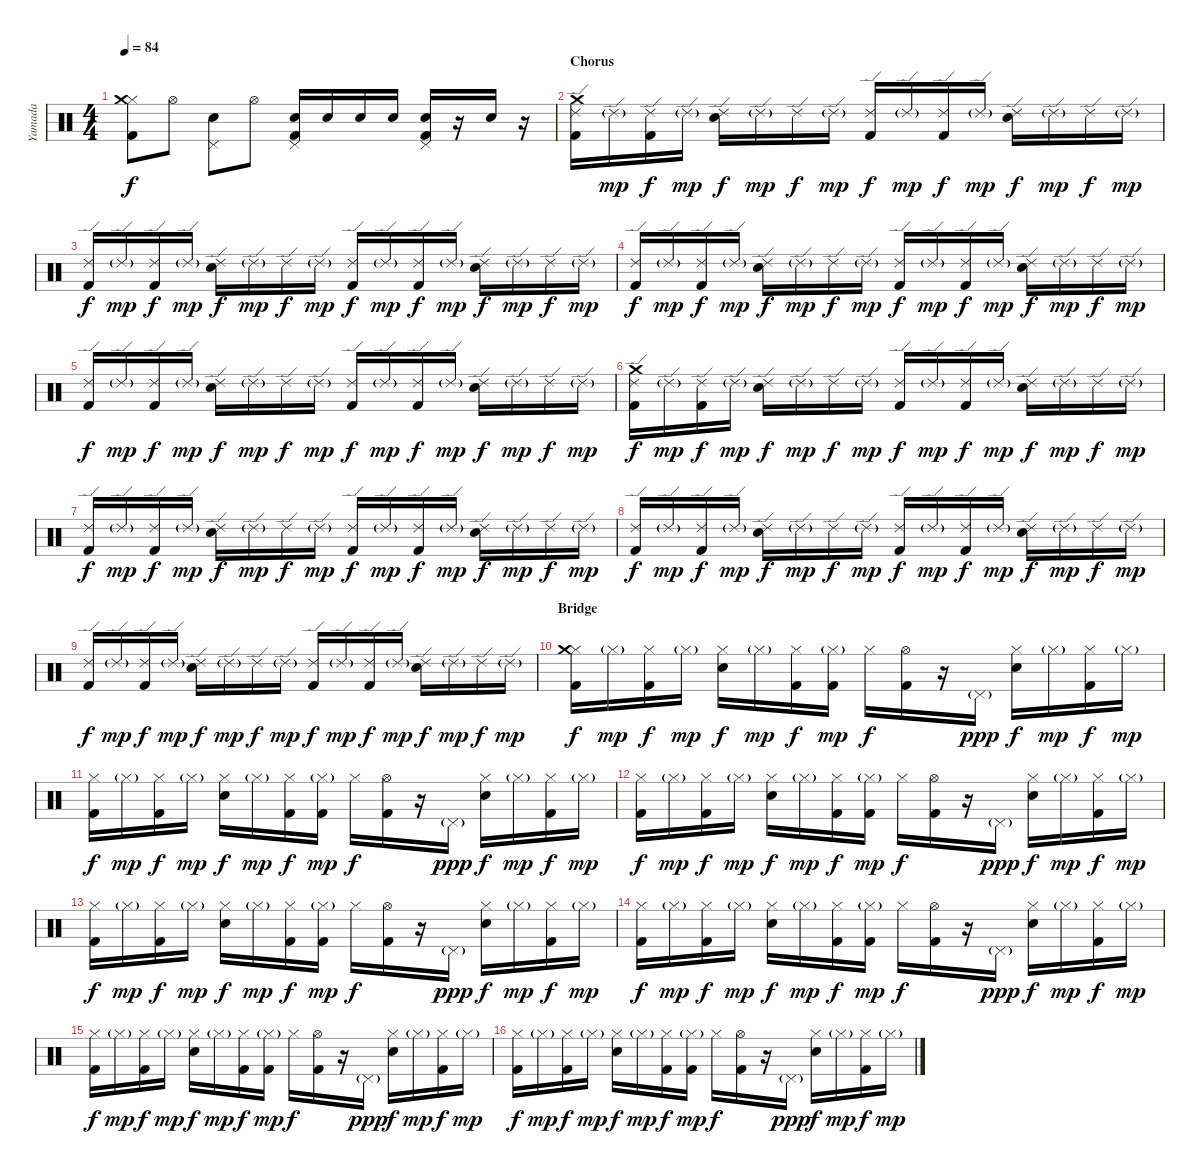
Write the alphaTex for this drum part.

\track ("Yamada" "Yamada") {instrument percussion}
\staff {score}
\articulation defaults
\ts (4 4)
\tempo 84
\clef neutral
\ks c
("Hi-Hat (closed)" "Crash medium (hit)" "Kick (hit) 2").8{dy f} "Hi-Hat (open)".8 ("Pedal Hi-Hat (hit)" "Electric Snare (hit)").8 "Hi-Hat (open)".8 ("Pedal Hi-Hat (hit)" "Electric Snare (hit)" "Kick (hit) 2").16 "Electric Snare (hit)".16 "Electric Snare (hit)".16 "Electric Snare (hit)".16 ("Pedal Hi-Hat (hit)" "Electric Snare (hit)" "Kick (hit) 2").16 r.16 "Electric Snare (hit)".16 r.16 |
\section ("" "Chorus")
("Ride (edge) 2" "Crash medium (hit)" "Kick (hit) 2").16 "Ride (edge) 2"{g}.16{dy mp} ("Ride (edge) 2" "Kick (hit) 2").16{dy f} "Ride (edge) 2"{g}.16{dy mp} ("Ride (edge) 2" "Electric Snare (hit)").16{dy f} "Ride (edge) 2"{g}.16{dy mp} "Ride (edge) 2".16{dy f} "Ride (edge) 2"{g}.16{dy mp} ("Ride (edge) 2" "Kick (hit) 2").16{dy f} "Ride (edge) 2"{g}.16{dy mp} ("Ride (edge) 2" "Kick (hit) 2").16{dy f} "Ride (edge) 2"{g}.16{dy mp} ("Ride (edge) 2" "Electric Snare (hit)").16{dy f} "Ride (edge) 2"{g}.16{dy mp} "Ride (edge) 2".16{dy f} "Ride (edge) 2"{g}.16{dy mp} |
("Ride (edge) 2" "Kick (hit) 2").16{dy f} "Ride (edge) 2"{g}.16{dy mp} ("Ride (edge) 2" "Kick (hit) 2").16{dy f} "Ride (edge) 2"{g}.16{dy mp} ("Ride (edge) 2" "Electric Snare (hit)").16{dy f} "Ride (edge) 2"{g}.16{dy mp} "Ride (edge) 2".16{dy f} "Ride (edge) 2"{g}.16{dy mp} ("Ride (edge) 2" "Kick (hit) 2").16{dy f} "Ride (edge) 2"{g}.16{dy mp} ("Ride (edge) 2" "Kick (hit) 2").16{dy f} "Ride (edge) 2"{g}.16{dy mp} ("Ride (edge) 2" "Electric Snare (hit)").16{dy f} "Ride (edge) 2"{g}.16{dy mp} "Ride (edge) 2".16{dy f} "Ride (edge) 2"{g}.16{dy mp} |
("Ride (edge) 2" "Kick (hit) 2").16{dy f} "Ride (edge) 2"{g}.16{dy mp} ("Ride (edge) 2" "Kick (hit) 2").16{dy f} "Ride (edge) 2"{g}.16{dy mp} ("Ride (edge) 2" "Electric Snare (hit)").16{dy f} "Ride (edge) 2"{g}.16{dy mp} "Ride (edge) 2".16{dy f} "Ride (edge) 2"{g}.16{dy mp} ("Ride (edge) 2" "Kick (hit) 2").16{dy f} "Ride (edge) 2"{g}.16{dy mp} ("Ride (edge) 2" "Kick (hit) 2").16{dy f} "Ride (edge) 2"{g}.16{dy mp} ("Ride (edge) 2" "Electric Snare (hit)").16{dy f} "Ride (edge) 2"{g}.16{dy mp} "Ride (edge) 2".16{dy f} "Ride (edge) 2"{g}.16{dy mp} |
("Ride (edge) 2" "Kick (hit) 2").16{dy f} "Ride (edge) 2"{g}.16{dy mp} ("Ride (edge) 2" "Kick (hit) 2").16{dy f} "Ride (edge) 2"{g}.16{dy mp} ("Ride (edge) 2" "Electric Snare (hit)").16{dy f} "Ride (edge) 2"{g}.16{dy mp} "Ride (edge) 2".16{dy f} "Ride (edge) 2"{g}.16{dy mp} ("Ride (edge) 2" "Kick (hit) 2").16{dy f} "Ride (edge) 2"{g}.16{dy mp} ("Ride (edge) 2" "Kick (hit) 2").16{dy f} "Ride (edge) 2"{g}.16{dy mp} ("Ride (edge) 2" "Electric Snare (hit)").16{dy f} "Ride (edge) 2"{g}.16{dy mp} "Ride (edge) 2".16{dy f} "Ride (edge) 2"{g}.16{dy mp} |
("Ride (edge) 2" "Crash medium (hit)" "Kick (hit) 2").16{dy f} "Ride (edge) 2"{g}.16{dy mp} ("Ride (edge) 2" "Kick (hit) 2").16{dy f} "Ride (edge) 2"{g}.16{dy mp} ("Ride (edge) 2" "Electric Snare (hit)").16{dy f} "Ride (edge) 2"{g}.16{dy mp} "Ride (edge) 2".16{dy f} "Ride (edge) 2"{g}.16{dy mp} ("Ride (edge) 2" "Kick (hit) 2").16{dy f} "Ride (edge) 2"{g}.16{dy mp} ("Ride (edge) 2" "Kick (hit) 2").16{dy f} "Ride (edge) 2"{g}.16{dy mp} ("Ride (edge) 2" "Electric Snare (hit)").16{dy f} "Ride (edge) 2"{g}.16{dy mp} "Ride (edge) 2".16{dy f} "Ride (edge) 2"{g}.16{dy mp} |
("Ride (edge) 2" "Kick (hit) 2").16{dy f} "Ride (edge) 2"{g}.16{dy mp} ("Ride (edge) 2" "Kick (hit) 2").16{dy f} "Ride (edge) 2"{g}.16{dy mp} ("Ride (edge) 2" "Electric Snare (hit)").16{dy f} "Ride (edge) 2"{g}.16{dy mp} "Ride (edge) 2".16{dy f} "Ride (edge) 2"{g}.16{dy mp} ("Ride (edge) 2" "Kick (hit) 2").16{dy f} "Ride (edge) 2"{g}.16{dy mp} ("Ride (edge) 2" "Kick (hit) 2").16{dy f} "Ride (edge) 2"{g}.16{dy mp} ("Ride (edge) 2" "Electric Snare (hit)").16{dy f} "Ride (edge) 2"{g}.16{dy mp} "Ride (edge) 2".16{dy f} "Ride (edge) 2"{g}.16{dy mp} |
("Ride (edge) 2" "Kick (hit) 2").16{dy f} "Ride (edge) 2"{g}.16{dy mp} ("Ride (edge) 2" "Kick (hit) 2").16{dy f} "Ride (edge) 2"{g}.16{dy mp} ("Ride (edge) 2" "Electric Snare (hit)").16{dy f} "Ride (edge) 2"{g}.16{dy mp} "Ride (edge) 2".16{dy f} "Ride (edge) 2"{g}.16{dy mp} ("Ride (edge) 2" "Kick (hit) 2").16{dy f} "Ride (edge) 2"{g}.16{dy mp} ("Ride (edge) 2" "Kick (hit) 2").16{dy f} "Ride (edge) 2"{g}.16{dy mp} ("Ride (edge) 2" "Electric Snare (hit)").16{dy f} "Ride (edge) 2"{g}.16{dy mp} "Ride (edge) 2".16{dy f} "Ride (edge) 2"{g}.16{dy mp} |
("Ride (edge) 2" "Kick (hit) 2").16{dy f} "Ride (edge) 2"{g}.16{dy mp} ("Ride (edge) 2" "Kick (hit) 2").16{dy f} "Ride (edge) 2"{g}.16{dy mp} ("Ride (edge) 2" "Electric Snare (hit)").16{dy f} "Ride (edge) 2"{g}.16{dy mp} "Ride (edge) 2".16{dy f} "Ride (edge) 2"{g}.16{dy mp} ("Ride (edge) 2" "Kick (hit) 2").16{dy f} "Ride (edge) 2"{g}.16{dy mp} ("Ride (edge) 2" "Kick (hit) 2").16{dy f} "Ride (edge) 2"{g}.16{dy mp} ("Ride (edge) 2" "Electric Snare (hit)").16{dy f} "Ride (edge) 2"{g}.16{dy mp} "Ride (edge) 2".16{dy f} "Ride (edge) 2"{g}.16{dy mp} |
\section ("" "Bridge")
("Hi-Hat (closed)" "Crash medium (hit)" "Kick (hit) 2").16{dy f} "Hi-Hat (closed)"{g}.16{dy mp} ("Hi-Hat (closed)" "Kick (hit) 2").16{dy f} "Hi-Hat (closed)"{g}.16{dy mp} ("Hi-Hat (closed)" "Electric Snare (hit)").16{dy f} "Hi-Hat (closed)"{g}.16{dy mp} ("Hi-Hat (closed)" "Kick (hit) 2").16{dy f} ("Hi-Hat (closed)"{g} "Kick (hit) 2").16{dy mp} "Hi-Hat (closed)".16{dy f} ("Hi-Hat (open)" "Kick (hit) 2").16 r.16 "Pedal Hi-Hat (hit)"{g}.16{dy ppp} ("Hi-Hat (closed)" "Electric Snare (hit)").16{dy f} "Hi-Hat (closed)"{g}.16{dy mp} ("Hi-Hat (closed)" "Kick (hit) 2").16{dy f} "Hi-Hat (closed)"{g}.16{dy mp} |
("Hi-Hat (closed)" "Kick (hit) 2").16{dy f} "Hi-Hat (closed)"{g}.16{dy mp} ("Hi-Hat (closed)" "Kick (hit) 2").16{dy f} "Hi-Hat (closed)"{g}.16{dy mp} ("Hi-Hat (closed)" "Electric Snare (hit)").16{dy f} "Hi-Hat (closed)"{g}.16{dy mp} ("Hi-Hat (closed)" "Kick (hit) 2").16{dy f} ("Hi-Hat (closed)"{g} "Kick (hit) 2").16{dy mp} "Hi-Hat (closed)".16{dy f} ("Hi-Hat (open)" "Kick (hit) 2").16 r.16 "Pedal Hi-Hat (hit)"{g}.16{dy ppp} ("Hi-Hat (closed)" "Electric Snare (hit)").16{dy f} "Hi-Hat (closed)"{g}.16{dy mp} ("Hi-Hat (closed)" "Kick (hit) 2").16{dy f} "Hi-Hat (closed)"{g}.16{dy mp} |
("Hi-Hat (closed)" "Kick (hit) 2").16{dy f} "Hi-Hat (closed)"{g}.16{dy mp} ("Hi-Hat (closed)" "Kick (hit) 2").16{dy f} "Hi-Hat (closed)"{g}.16{dy mp} ("Hi-Hat (closed)" "Electric Snare (hit)").16{dy f} "Hi-Hat (closed)"{g}.16{dy mp} ("Hi-Hat (closed)" "Kick (hit) 2").16{dy f} ("Hi-Hat (closed)"{g} "Kick (hit) 2").16{dy mp} "Hi-Hat (closed)".16{dy f} ("Hi-Hat (open)" "Kick (hit) 2").16 r.16 "Pedal Hi-Hat (hit)"{g}.16{dy ppp} ("Hi-Hat (closed)" "Electric Snare (hit)").16{dy f} "Hi-Hat (closed)"{g}.16{dy mp} ("Hi-Hat (closed)" "Kick (hit) 2").16{dy f} "Hi-Hat (closed)"{g}.16{dy mp} |
("Hi-Hat (closed)" "Kick (hit) 2").16{dy f} "Hi-Hat (closed)"{g}.16{dy mp} ("Hi-Hat (closed)" "Kick (hit) 2").16{dy f} "Hi-Hat (closed)"{g}.16{dy mp} ("Hi-Hat (closed)" "Electric Snare (hit)").16{dy f} "Hi-Hat (closed)"{g}.16{dy mp} ("Hi-Hat (closed)" "Kick (hit) 2").16{dy f} ("Hi-Hat (closed)"{g} "Kick (hit) 2").16{dy mp} "Hi-Hat (closed)".16{dy f} ("Hi-Hat (open)" "Kick (hit) 2").16 r.16 "Pedal Hi-Hat (hit)"{g}.16{dy ppp} ("Hi-Hat (closed)" "Electric Snare (hit)").16{dy f} "Hi-Hat (closed)"{g}.16{dy mp} ("Hi-Hat (closed)" "Kick (hit) 2").16{dy f} "Hi-Hat (closed)"{g}.16{dy mp} |
("Hi-Hat (closed)" "Kick (hit) 2").16{dy f} "Hi-Hat (closed)"{g}.16{dy mp} ("Hi-Hat (closed)" "Kick (hit) 2").16{dy f} "Hi-Hat (closed)"{g}.16{dy mp} ("Hi-Hat (closed)" "Electric Snare (hit)").16{dy f} "Hi-Hat (closed)"{g}.16{dy mp} ("Hi-Hat (closed)" "Kick (hit) 2").16{dy f} ("Hi-Hat (closed)"{g} "Kick (hit) 2").16{dy mp} "Hi-Hat (closed)".16{dy f} ("Hi-Hat (open)" "Kick (hit) 2").16 r.16 "Pedal Hi-Hat (hit)"{g}.16{dy ppp} ("Hi-Hat (closed)" "Electric Snare (hit)").16{dy f} "Hi-Hat (closed)"{g}.16{dy mp} ("Hi-Hat (closed)" "Kick (hit) 2").16{dy f} "Hi-Hat (closed)"{g}.16{dy mp} |
("Hi-Hat (closed)" "Kick (hit) 2").16{dy f} "Hi-Hat (closed)"{g}.16{dy mp} ("Hi-Hat (closed)" "Kick (hit) 2").16{dy f} "Hi-Hat (closed)"{g}.16{dy mp} ("Hi-Hat (closed)" "Electric Snare (hit)").16{dy f} "Hi-Hat (closed)"{g}.16{dy mp} ("Hi-Hat (closed)" "Kick (hit) 2").16{dy f} ("Hi-Hat (closed)"{g} "Kick (hit) 2").16{dy mp} "Hi-Hat (closed)".16{dy f} ("Hi-Hat (open)" "Kick (hit) 2").16 r.16 "Pedal Hi-Hat (hit)"{g}.16{dy ppp} ("Hi-Hat (closed)" "Electric Snare (hit)").16{dy f} "Hi-Hat (closed)"{g}.16{dy mp} ("Hi-Hat (closed)" "Kick (hit) 2").16{dy f} "Hi-Hat (closed)"{g}.16{dy mp} |
("Hi-Hat (closed)" "Kick (hit) 2").16{dy f} "Hi-Hat (closed)"{g}.16{dy mp} ("Hi-Hat (closed)" "Kick (hit) 2").16{dy f} "Hi-Hat (closed)"{g}.16{dy mp} ("Hi-Hat (closed)" "Electric Snare (hit)").16{dy f} "Hi-Hat (closed)"{g}.16{dy mp} ("Hi-Hat (closed)" "Kick (hit) 2").16{dy f} ("Hi-Hat (closed)"{g} "Kick (hit) 2").16{dy mp} "Hi-Hat (closed)".16{dy f} ("Hi-Hat (open)" "Kick (hit) 2").16 r.16 "Pedal Hi-Hat (hit)"{g}.16{dy ppp} ("Hi-Hat (closed)" "Electric Snare (hit)").16{dy f} "Hi-Hat (closed)"{g}.16{dy mp} ("Hi-Hat (closed)" "Kick (hit) 2").16{dy f} "Hi-Hat (closed)"{g}.16{dy mp}
